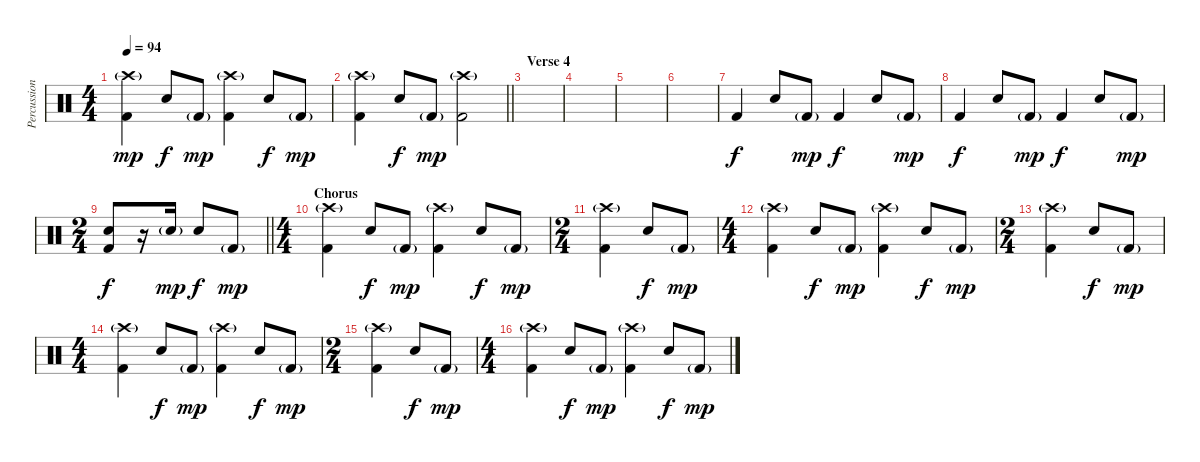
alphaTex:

\track ("Percussion" "Percussion") {instrument percussion}
\staff {score}
\articulation defaults
\ts (4 4)
\tempo 94
\clef neutral
\ks c
("Crash high (hit)"{g} "Kick (hit) 2").4{dy mp} "Snare (hit) 2".8{dy f} "Kick (hit) 2"{g}.8{dy mp} ("Crash high (hit)"{g} "Kick (hit) 2").4 "Snare (hit) 2".8{dy f} "Kick (hit) 2"{g}.8{dy mp} |
\barLineRight lightlight
("Crash high (hit)"{g} "Kick (hit) 2").4 "Snare (hit) 2".8{dy f} "Kick (hit) 2"{g}.8{dy mp} ("Crash high (hit)"{g} "Kick (hit) 2").2 |
\section ("" "Verse 4")
|
|
|
|
"Kick (hit) 2".4{dy f} "Snare (hit) 2".8 "Kick (hit) 2"{g}.8{dy mp} "Kick (hit) 2".4{dy f} "Snare (hit) 2".8 "Kick (hit) 2"{g}.8{dy mp} |
"Kick (hit) 2".4{dy f} "Snare (hit) 2".8 "Kick (hit) 2"{g}.8{dy mp} "Kick (hit) 2".4{dy f} "Snare (hit) 2".8 "Kick (hit) 2"{g}.8{dy mp} |
\ts (2 4)
\barLineRight lightlight
("Snare (hit) 2" "Kick (hit) 2").8{dy f} r.16 "Snare (hit) 2"{g}.16{dy mp} "Snare (hit) 2".8{dy f} "Kick (hit) 2"{g}.8{dy mp} |
\ts (4 4)
\section ("" "Chorus")
("Crash high (hit)"{g} "Kick (hit) 2").4 "Snare (hit) 2".8{dy f} "Kick (hit) 2"{g}.8{dy mp} ("Crash high (hit)"{g} "Kick (hit) 2").4 "Snare (hit) 2".8{dy f} "Kick (hit) 2"{g}.8{dy mp} |
\ts (2 4)
("Crash high (hit)"{g} "Kick (hit) 2").4 "Snare (hit) 2".8{dy f} "Kick (hit) 2"{g}.8{dy mp} |
\ts (4 4)
("Crash high (hit)"{g} "Kick (hit) 2").4 "Snare (hit) 2".8{dy f} "Kick (hit) 2"{g}.8{dy mp} ("Crash high (hit)"{g} "Kick (hit) 2").4 "Snare (hit) 2".8{dy f} "Kick (hit) 2"{g}.8{dy mp} |
\ts (2 4)
("Crash high (hit)"{g} "Kick (hit) 2").4 "Snare (hit) 2".8{dy f} "Kick (hit) 2"{g}.8{dy mp} |
\ts (4 4)
("Crash high (hit)"{g} "Kick (hit) 2").4 "Snare (hit) 2".8{dy f} "Kick (hit) 2"{g}.8{dy mp} ("Crash high (hit)"{g} "Kick (hit) 2").4 "Snare (hit) 2".8{dy f} "Kick (hit) 2"{g}.8{dy mp} |
\ts (2 4)
("Crash high (hit)"{g} "Kick (hit) 2").4 "Snare (hit) 2".8{dy f} "Kick (hit) 2"{g}.8{dy mp} |
\ts (4 4)
("Crash high (hit)"{g} "Kick (hit) 2").4 "Snare (hit) 2".8{dy f} "Kick (hit) 2"{g}.8{dy mp} ("Crash high (hit)"{g} "Kick (hit) 2").4 "Snare (hit) 2".8{dy f} "Kick (hit) 2"{g}.8{dy mp}
